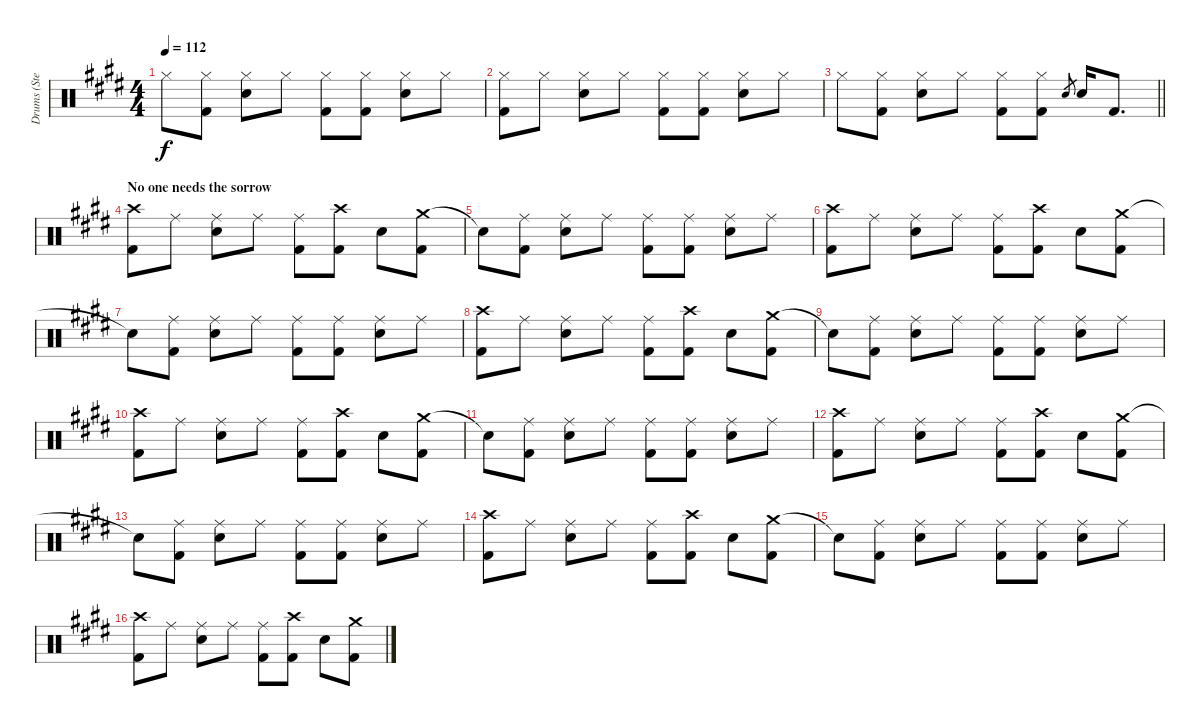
\track ("Drums (Steven)" "Drums (Ste") {instrument percussion}
\staff {score}
\articulation defaults
\ts (4 4)
\tempo 112
\clef neutral
\ks e "Hi-Hat (closed)".8{dy f}
("Hi-Hat (closed)" "Kick (hit) 2").8 ("Hi-Hat (closed)" "Snare (hit) 2").8 "Hi-Hat (closed)".8 ("Hi-Hat (closed)" "Kick (hit) 2").8 ("Hi-Hat (closed)" "Kick (hit) 2").8 ("Hi-Hat (closed)" "Snare (hit) 2").8 "Hi-Hat (closed)".8 |
("Hi-Hat (closed)" "Kick (hit) 2").8 "Hi-Hat (closed)".8 ("Hi-Hat (closed)" "Snare (hit) 2").8 "Hi-Hat (closed)".8 ("Hi-Hat (closed)" "Kick (hit) 2").8 ("Hi-Hat (closed)" "Kick (hit) 2").8 ("Hi-Hat (closed)" "Snare (hit) 2").8 "Hi-Hat (closed)".8 |
\barLineRight lightlight "Hi-Hat (closed)".8
("Hi-Hat (closed)" "Kick (hit) 2").8 ("Hi-Hat (closed)" "Snare (hit) 2").8 "Hi-Hat (closed)".8 ("Hi-Hat (closed)" "Kick (hit) 2").8 ("Hi-Hat (closed)" "Kick (hit) 2").8 "Snare (hit) 2".8{gr} "Snare (hit) 2".16 "Kick (hit) 2".8{d} |
\section ("" "No one needs the sorrow")
("Crash high (hit)" "Kick (hit) 2").8 "Ride (middle)".8 ("Ride (middle)" "Snare (hit) 2").8 "Ride (middle)".8 ("Ride (middle)" "Kick (hit) 2").8 ("Crash high (hit)" "Kick (hit) 2").8 "Snare (hit) 2".8 ("Crash medium (hit)" "Kick (hit) 2").8 |
"Snare (hit)"{t}.8 ("Ride (middle)" "Kick (hit) 2").8 ("Ride (middle)" "Snare (hit) 2").8 "Ride (middle)".8 ("Ride (middle)" "Kick (hit) 2").8 ("Ride (middle)" "Kick (hit) 2").8 ("Ride (middle)" "Snare (hit) 2").8 "Ride (middle)".8 |
("Crash high (hit)" "Kick (hit) 2").8 "Ride (middle)".8 ("Ride (middle)" "Snare (hit) 2").8 "Ride (middle)".8 ("Ride (middle)" "Kick (hit) 2").8 ("Crash high (hit)" "Kick (hit) 2").8 "Snare (hit) 2".8 ("Crash medium (hit)" "Kick (hit) 2").8 |
"Snare (hit)"{t}.8 ("Ride (middle)" "Kick (hit) 2").8 ("Ride (middle)" "Snare (hit) 2").8 "Ride (middle)".8 ("Ride (middle)" "Kick (hit) 2").8 ("Ride (middle)" "Kick (hit) 2").8 ("Ride (middle)" "Snare (hit) 2").8 "Ride (middle)".8 |
("Crash high (hit)" "Kick (hit) 2").8 "Ride (middle)".8 ("Ride (middle)" "Snare (hit) 2").8 "Ride (middle)".8 ("Ride (middle)" "Kick (hit) 2").8 ("Crash high (hit)" "Kick (hit) 2").8 "Snare (hit) 2".8 ("Crash medium (hit)" "Kick (hit) 2").8 |
"Snare (hit)"{t}.8 ("Ride (middle)" "Kick (hit) 2").8 ("Ride (middle)" "Snare (hit) 2").8 "Ride (middle)".8 ("Ride (middle)" "Kick (hit) 2").8 ("Ride (middle)" "Kick (hit) 2").8 ("Ride (middle)" "Snare (hit) 2").8 "Ride (middle)".8 |
("Crash high (hit)" "Kick (hit) 2").8 "Ride (middle)".8 ("Ride (middle)" "Snare (hit) 2").8 "Ride (middle)".8 ("Ride (middle)" "Kick (hit) 2").8 ("Crash high (hit)" "Kick (hit) 2").8 "Snare (hit) 2".8 ("Crash medium (hit)" "Kick (hit) 2").8 |
"Snare (hit)"{t}.8 ("Ride (middle)" "Kick (hit) 2").8 ("Ride (middle)" "Snare (hit) 2").8 "Ride (middle)".8 ("Ride (middle)" "Kick (hit) 2").8 ("Ride (middle)" "Kick (hit) 2").8 ("Ride (middle)" "Snare (hit) 2").8 "Ride (middle)".8 |
("Crash high (hit)" "Kick (hit) 2").8 "Ride (middle)".8 ("Ride (middle)" "Snare (hit) 2").8 "Ride (middle)".8 ("Ride (middle)" "Kick (hit) 2").8 ("Crash high (hit)" "Kick (hit) 2").8 "Snare (hit) 2".8 ("Crash medium (hit)" "Kick (hit) 2").8 |
"Snare (hit)"{t}.8 ("Ride (middle)" "Kick (hit) 2").8 ("Ride (middle)" "Snare (hit) 2").8 "Ride (middle)".8 ("Ride (middle)" "Kick (hit) 2").8 ("Ride (middle)" "Kick (hit) 2").8 ("Ride (middle)" "Snare (hit) 2").8 "Ride (middle)".8 |
("Crash high (hit)" "Kick (hit) 2").8 "Ride (middle)".8 ("Ride (middle)" "Snare (hit) 2").8 "Ride (middle)".8 ("Ride (middle)" "Kick (hit) 2").8 ("Crash high (hit)" "Kick (hit) 2").8 "Snare (hit) 2".8 ("Crash medium (hit)" "Kick (hit) 2").8 |
"Snare (hit)"{t}.8 ("Ride (middle)" "Kick (hit) 2").8 ("Ride (middle)" "Snare (hit) 2").8 "Ride (middle)".8 ("Ride (middle)" "Kick (hit) 2").8 ("Ride (middle)" "Kick (hit) 2").8 ("Ride (middle)" "Snare (hit) 2").8 "Ride (middle)".8 |
("Crash high (hit)" "Kick (hit) 2").8 "Ride (middle)".8 ("Ride (middle)" "Snare (hit) 2").8 "Ride (middle)".8 ("Ride (middle)" "Kick (hit) 2").8 ("Crash high (hit)" "Kick (hit) 2").8 "Snare (hit) 2".8 ("Crash medium (hit)" "Kick (hit) 2").8
